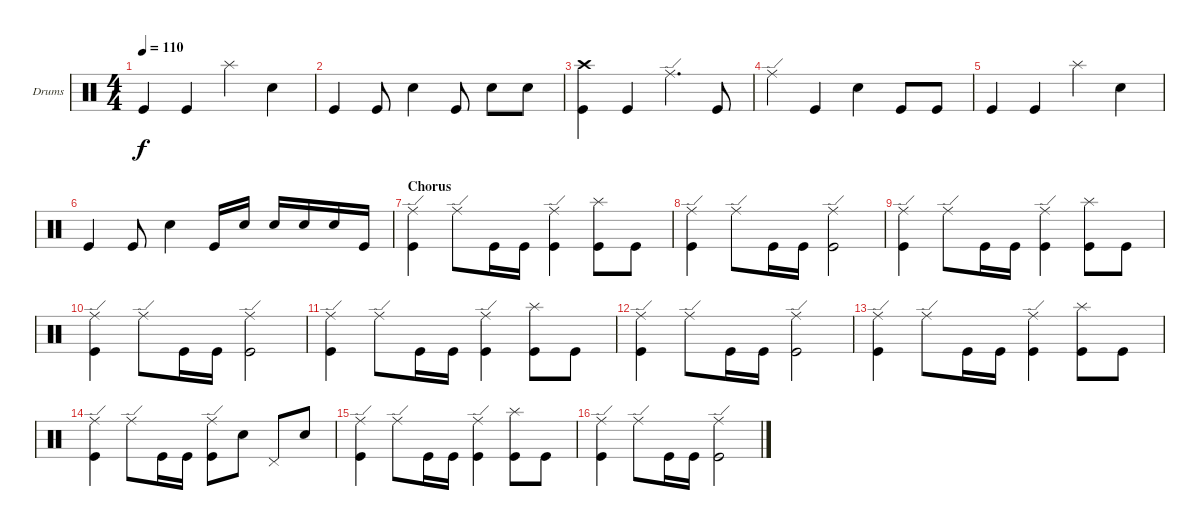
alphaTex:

\bracketExtendMode groupsimilarinstruments
\firstSystemTrackNameOrientation horizontal
\otherSystemsTrackNameOrientation horizontal
\track ("Drumkit" "Drums") {instrument percussion}
\staff {score}
\articulation defaults
\ts (4 4)
\tempo 110
\clef neutral
\ks c "Kick (hit)".4{dy f} "Kick (hit)".4 "Splash (hit)".4 "Snare (hit) 2".4
|
"Kick (hit)".4 "Kick (hit)".8 "Snare (hit) 2".4 "Kick (hit)".8 "Snare (hit) 2".8 "Snare (hit) 2".8 |
("Crash high (hit)" "Kick (hit)").4 "Kick (hit)".4 "Ride (edge)".4{d} "Kick (hit)".8 |
"Ride (edge)".4 "Kick (hit)".4 "Snare (hit) 2".4 "Kick (hit)".8 "Kick (hit)".8 |
"Kick (hit)".4 "Kick (hit)".4 "Splash (hit)".4 "Snare (hit) 2".4 |
"Kick (hit)".4 "Kick (hit)".8 "Snare (hit) 2".4 "Kick (hit)".16 "Snare (hit) 2".16 "Snare (hit) 2".16 "Snare (hit) 2".16 "Snare (hit) 2".16 "Kick (hit)".16 |
\section ("" "Chorus")
("Ride (edge)" "Kick (hit)").4 "Ride (edge)".8 "Kick (hit)".16 "Kick (hit)".16 ("Ride (edge)" "Kick (hit)").4 ("Splash (hit)" "Kick (hit)").8 "Kick (hit)".8 |
("Ride (edge)" "Kick (hit)").4 "Ride (edge)".8 "Kick (hit)".16 "Kick (hit)".16 ("Ride (edge)" "Kick (hit)").2 |
("Ride (edge)" "Kick (hit)").4 "Ride (edge)".8 "Kick (hit)".16 "Kick (hit)".16 ("Ride (edge)" "Kick (hit)").4 ("Splash (hit)" "Kick (hit)").8 "Kick (hit)".8 |
("Ride (edge)" "Kick (hit)").4 "Ride (edge)".8 "Kick (hit)".16 "Kick (hit)".16 ("Ride (edge)" "Kick (hit)").2 |
("Ride (edge)" "Kick (hit)").4 "Ride (edge)".8 "Kick (hit)".16 "Kick (hit)".16 ("Ride (edge)" "Kick (hit)").4 ("Splash (hit)" "Kick (hit)").8 "Kick (hit)".8 |
("Ride (edge)" "Kick (hit)").4 "Ride (edge)".8 "Kick (hit)".16 "Kick (hit)".16 ("Ride (edge)" "Kick (hit)").2 |
("Ride (edge)" "Kick (hit)").4 "Ride (edge)".8 "Kick (hit)".16 "Kick (hit)".16 ("Ride (edge)" "Kick (hit)").4 ("Splash (hit)" "Kick (hit)").8 "Kick (hit)".8 |
("Ride (edge)" "Kick (hit)").4 "Ride (edge)".8 "Kick (hit)".16 "Kick (hit)".16 ("Ride (edge)" "Kick (hit)").8 "Snare (hit) 2".8 "Pedal Hi-Hat (hit)".8 "Snare (hit) 2".8 |
("Ride (edge)" "Kick (hit)").4 "Ride (edge)".8 "Kick (hit)".16 "Kick (hit)".16 ("Ride (edge)" "Kick (hit)").4 ("Splash (hit)" "Kick (hit)").8 "Kick (hit)".8 |
("Ride (edge)" "Kick (hit)").4 "Ride (edge)".8 "Kick (hit)".16 "Kick (hit)".16 ("Ride (edge)" "Kick (hit)").2
